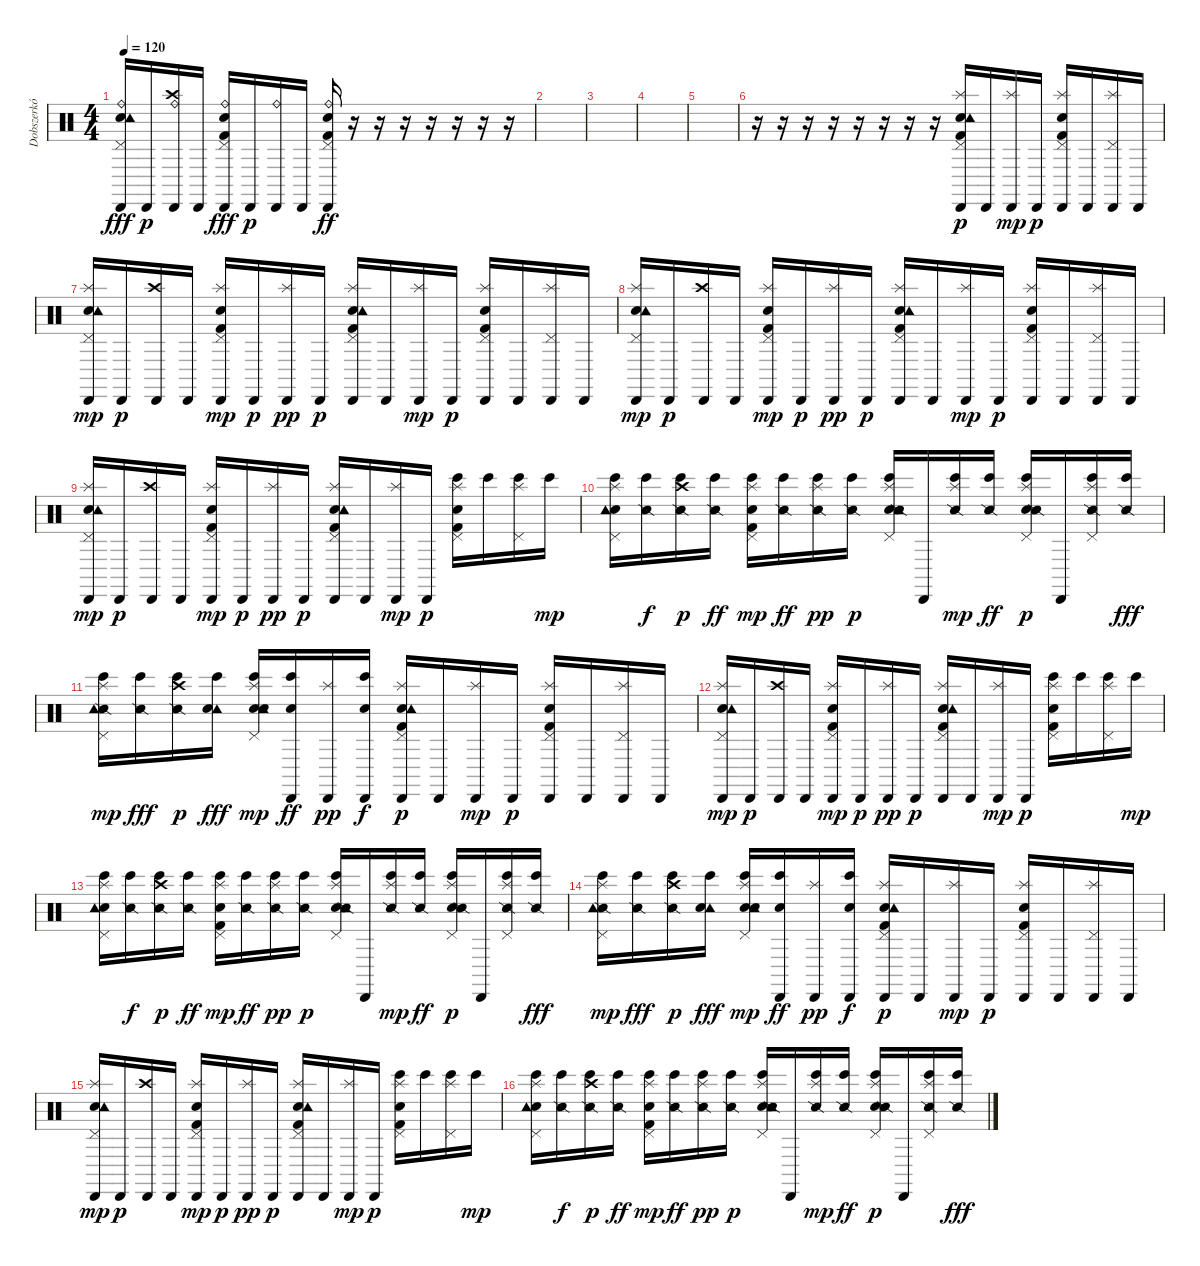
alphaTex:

\track ("Dobszerkó" "Dobszerkó") {instrument percussion}
\staff {score}
\articulation defaults
\ts (4 4)
\tempo 120
\clef neutral
\ks c
("Cabasa (hit)" "Snare (hit) 2" "Tambourine (hit)" "Pedal Hi-Hat (hit)" "Ride (bell)").16{dy fff} "Cabasa (hit)".16{dy p} ("Cabasa (hit)" "Crash high (hit)" "Ride (bell)").16 "Cabasa (hit)".16 ("Electric Snare (hit)" "Cabasa (hit)" "Kick (hit) 2" "Pedal Hi-Hat (hit)" "Ride (bell)").16{dy fff} "Cabasa (hit)".16{dy p} ("Cabasa (hit)" "Ride (bell)").16 "Cabasa (hit)".16 ("Snare (hit) 2" "Cabasa (hit)" "Kick (hit) 2" "Pedal Hi-Hat (hit)" "Ride (bell)").16{dy ff} r.16 r.16 r.16 r.16 r.16 r.16 r.16 |
|
|
|
|
r.16 r.16 r.16 r.16 r.16 r.16 r.16 r.16 ("Snare (hit) 2" "Cabasa (hit)" "Kick (hit) 2" "Tambourine (hit)" "Pedal Hi-Hat (hit)" "Splash (hit)").16{dy p} "Cabasa (hit)".16 ("Cabasa (hit)" "Splash (hit)").16{dy mp} "Cabasa (hit)".16{dy p} ("Electric Snare (hit)" "Cabasa (hit)" "Kick (hit) 2" "Pedal Hi-Hat (hit)" "Splash (hit)").16 "Cabasa (hit)".16 ("Cabasa (hit)" "Pedal Hi-Hat (hit)" "Splash (hit)").16 "Cabasa (hit)".16 |
("Cabasa (hit)" "Snare (hit) 2" "Tambourine (hit)" "Pedal Hi-Hat (hit)" "Splash (hit)").16{dy mp} "Cabasa (hit)".16{dy p} ("Cabasa (hit)" "Crash high (hit)").16 "Cabasa (hit)".16 ("Electric Snare (hit)" "Cabasa (hit)" "Kick (hit) 2" "Pedal Hi-Hat (hit)" "Splash (hit)").16{dy mp} "Cabasa (hit)".16{dy p} ("Cabasa (hit)" "Splash (hit)").16{dy pp} "Cabasa (hit)".16{dy p} ("Snare (hit) 2" "Cabasa (hit)" "Kick (hit) 2" "Tambourine (hit)" "Pedal Hi-Hat (hit)" "Splash (hit)").16 "Cabasa (hit)".16 ("Cabasa (hit)" "Splash (hit)").16{dy mp} "Cabasa (hit)".16{dy p} ("Electric Snare (hit)" "Cabasa (hit)" "Kick (hit) 2" "Pedal Hi-Hat (hit)" "Splash (hit)").16 "Cabasa (hit)".16 ("Cabasa (hit)" "Pedal Hi-Hat (hit)" "Splash (hit)").16 "Cabasa (hit)".16 |
("Cabasa (hit)" "Snare (hit) 2" "Tambourine (hit)" "Pedal Hi-Hat (hit)" "Splash (hit)").16{dy mp} "Cabasa (hit)".16{dy p} ("Cabasa (hit)" "Crash high (hit)").16 "Cabasa (hit)".16 ("Electric Snare (hit)" "Cabasa (hit)" "Kick (hit) 2" "Pedal Hi-Hat (hit)" "Splash (hit)").16{dy mp} "Cabasa (hit)".16{dy p} ("Cabasa (hit)" "Splash (hit)").16{dy pp} "Cabasa (hit)".16{dy p} ("Snare (hit) 2" "Cabasa (hit)" "Kick (hit) 2" "Tambourine (hit)" "Pedal Hi-Hat (hit)" "Splash (hit)").16 "Cabasa (hit)".16 ("Cabasa (hit)" "Splash (hit)").16{dy mp} "Cabasa (hit)".16{dy p} ("Electric Snare (hit)" "Cabasa (hit)" "Kick (hit) 2" "Pedal Hi-Hat (hit)" "Splash (hit)").16 "Cabasa (hit)".16 ("Cabasa (hit)" "Pedal Hi-Hat (hit)" "Splash (hit)").16 "Cabasa (hit)".16 |
("Cabasa (hit)" "Snare (hit) 2" "Tambourine (hit)" "Pedal Hi-Hat (hit)" "Splash (hit)").16{dy mp} "Cabasa (hit)".16{dy p} ("Cabasa (hit)" "Crash high (hit)").16 "Cabasa (hit)".16 ("Electric Snare (hit)" "Cabasa (hit)" "Kick (hit) 2" "Pedal Hi-Hat (hit)" "Splash (hit)").16{dy mp} "Cabasa (hit)".16{dy p} ("Cabasa (hit)" "Splash (hit)").16{dy pp} "Cabasa (hit)".16{dy p} ("Snare (hit) 2" "Cabasa (hit)" "Kick (hit) 2" "Tambourine (hit)" "Pedal Hi-Hat (hit)" "Splash (hit)").16 "Cabasa (hit)".16 ("Cabasa (hit)" "Splash (hit)").16{dy mp} "Cabasa (hit)".16{dy p} ("Electric Snare (hit)" "Bongo High (hit)" "Kick (hit) 2" "Pedal Hi-Hat (hit)" "Splash (hit)").16 "Bongo High (hit)".16 ("Bongo High (hit)" "Pedal Hi-Hat (hit)" "Splash (hit)").16 "Bongo High (hit)".16{dy mp} |
("Bongo High (hit)" "Snare (hit) 2" "Tambourine (hit)" "Pedal Hi-Hat (hit)" "Splash (hit)").16 ("Bongo High (hit)" "Snare (side stick) 2").16{dy f} ("Bongo High (hit)" "Snare (side stick) 2" "Crash high (hit)").16{dy p} ("Bongo High (hit)" "Snare (side stick) 2").16{dy ff} ("Electric Snare (hit)" "Bongo High (hit)" "Kick (hit) 2" "Pedal Hi-Hat (hit)" "Splash (hit)").16{dy mp} ("Bongo High (hit)" "Snare (side stick) 2").16{dy ff} ("Bongo High (hit)" "Snare (side stick) 2" "Splash (hit)").16{dy pp} ("Bongo High (hit)" "Snare (side stick) 2").16{dy p} ("Snare (hit) 2" "Bongo High (hit)" "Snare (side stick) 2" "Tambourine (hit)" "Pedal Hi-Hat (hit)" "Splash (hit)").16 "Cabasa (hit)".16 ("Bongo High (hit)" "Snare (side stick) 2" "Splash (hit)").16{dy mp} ("Bongo High (hit)" "Snare (side stick) 2").16{dy ff} ("Electric Snare (hit)" "Bongo High (hit)" "Snare (side stick) 2" "Pedal Hi-Hat (hit)" "Splash (hit)").16{dy p} "Cabasa (hit)".16 ("Bongo High (hit)" "Snare (side stick) 2" "Pedal Hi-Hat (hit)" "Splash (hit)").16 ("Bongo High (hit)" "Snare (side stick) 2").16{dy fff} |
("Bongo High (hit)" "Snare (side stick) 2" "Tambourine (hit)" "Pedal Hi-Hat (hit)" "Splash (hit)").16{dy mp} ("Bongo High (hit)" "Snare (side stick) 2").16{dy fff} ("Bongo High (hit)" "Snare (side stick) 2" "Crash high (hit)").16{dy p} ("Tambourine (hit)" "Snare (hit) 2" "Bongo High (hit)").16{dy fff} ("Electric Snare (hit)" "Tambourine (hit)" "Snare (hit) 2" "Bongo High (hit)" "Pedal Hi-Hat (hit)" "Splash (hit)").16{dy mp} ("Cabasa (hit)" "Snare (hit) 2" "Bongo High (hit)").16{dy ff} ("Cabasa (hit)" "Splash (hit)").16{dy pp} ("Cabasa (hit)" "Snare (hit) 2" "Bongo High (hit)").16{dy f} ("Snare (hit) 2" "Cabasa (hit)" "Kick (hit) 2" "Tambourine (hit)" "Pedal Hi-Hat (hit)" "Splash (hit)").16{dy p} "Cabasa (hit)".16 ("Cabasa (hit)" "Splash (hit)").16{dy mp} "Cabasa (hit)".16{dy p} ("Electric Snare (hit)" "Cabasa (hit)" "Kick (hit) 2" "Pedal Hi-Hat (hit)" "Splash (hit)").16 "Cabasa (hit)".16 ("Cabasa (hit)" "Pedal Hi-Hat (hit)" "Splash (hit)").16 "Cabasa (hit)".16 |
("Cabasa (hit)" "Snare (hit) 2" "Tambourine (hit)" "Pedal Hi-Hat (hit)" "Splash (hit)").16{dy mp} "Cabasa (hit)".16{dy p} ("Cabasa (hit)" "Crash high (hit)").16 "Cabasa (hit)".16 ("Electric Snare (hit)" "Cabasa (hit)" "Kick (hit) 2" "Pedal Hi-Hat (hit)" "Splash (hit)").16{dy mp} "Cabasa (hit)".16{dy p} ("Cabasa (hit)" "Splash (hit)").16{dy pp} "Cabasa (hit)".16{dy p} ("Snare (hit) 2" "Cabasa (hit)" "Kick (hit) 2" "Tambourine (hit)" "Pedal Hi-Hat (hit)" "Splash (hit)").16 "Cabasa (hit)".16 ("Cabasa (hit)" "Splash (hit)").16{dy mp} "Cabasa (hit)".16{dy p} ("Electric Snare (hit)" "Bongo High (hit)" "Kick (hit) 2" "Pedal Hi-Hat (hit)" "Splash (hit)").16 "Bongo High (hit)".16 ("Bongo High (hit)" "Pedal Hi-Hat (hit)" "Splash (hit)").16 "Bongo High (hit)".16{dy mp} |
("Bongo High (hit)" "Snare (hit) 2" "Tambourine (hit)" "Pedal Hi-Hat (hit)" "Splash (hit)").16 ("Bongo High (hit)" "Snare (side stick) 2").16{dy f} ("Bongo High (hit)" "Snare (side stick) 2" "Crash high (hit)").16{dy p} ("Bongo High (hit)" "Snare (side stick) 2").16{dy ff} ("Electric Snare (hit)" "Bongo High (hit)" "Kick (hit) 2" "Pedal Hi-Hat (hit)" "Splash (hit)").16{dy mp} ("Bongo High (hit)" "Snare (side stick) 2").16{dy ff} ("Bongo High (hit)" "Snare (side stick) 2" "Splash (hit)").16{dy pp} ("Bongo High (hit)" "Snare (side stick) 2").16{dy p} ("Snare (hit) 2" "Bongo High (hit)" "Snare (side stick) 2" "Tambourine (hit)" "Pedal Hi-Hat (hit)" "Splash (hit)").16 "Cabasa (hit)".16 ("Bongo High (hit)" "Snare (side stick) 2" "Splash (hit)").16{dy mp} ("Bongo High (hit)" "Snare (side stick) 2").16{dy ff} ("Electric Snare (hit)" "Bongo High (hit)" "Snare (side stick) 2" "Pedal Hi-Hat (hit)" "Splash (hit)").16{dy p} "Cabasa (hit)".16 ("Bongo High (hit)" "Snare (side stick) 2" "Pedal Hi-Hat (hit)" "Splash (hit)").16 ("Bongo High (hit)" "Snare (side stick) 2").16{dy fff} |
("Bongo High (hit)" "Snare (side stick) 2" "Tambourine (hit)" "Pedal Hi-Hat (hit)" "Splash (hit)").16{dy mp} ("Bongo High (hit)" "Snare (side stick) 2").16{dy fff} ("Bongo High (hit)" "Snare (side stick) 2" "Crash high (hit)").16{dy p} ("Tambourine (hit)" "Snare (hit) 2" "Bongo High (hit)").16{dy fff} ("Electric Snare (hit)" "Tambourine (hit)" "Snare (hit) 2" "Bongo High (hit)" "Pedal Hi-Hat (hit)" "Splash (hit)").16{dy mp} ("Cabasa (hit)" "Snare (hit) 2" "Bongo High (hit)").16{dy ff} ("Cabasa (hit)" "Splash (hit)").16{dy pp} ("Cabasa (hit)" "Snare (hit) 2" "Bongo High (hit)").16{dy f} ("Snare (hit) 2" "Cabasa (hit)" "Kick (hit) 2" "Tambourine (hit)" "Pedal Hi-Hat (hit)" "Splash (hit)").16{dy p} "Cabasa (hit)".16 ("Cabasa (hit)" "Splash (hit)").16{dy mp} "Cabasa (hit)".16{dy p} ("Electric Snare (hit)" "Cabasa (hit)" "Kick (hit) 2" "Pedal Hi-Hat (hit)" "Splash (hit)").16 "Cabasa (hit)".16 ("Cabasa (hit)" "Pedal Hi-Hat (hit)" "Splash (hit)").16 "Cabasa (hit)".16 |
("Cabasa (hit)" "Snare (hit) 2" "Tambourine (hit)" "Pedal Hi-Hat (hit)" "Splash (hit)").16{dy mp} "Cabasa (hit)".16{dy p} ("Cabasa (hit)" "Crash high (hit)").16 "Cabasa (hit)".16 ("Electric Snare (hit)" "Cabasa (hit)" "Kick (hit) 2" "Pedal Hi-Hat (hit)" "Splash (hit)").16{dy mp} "Cabasa (hit)".16{dy p} ("Cabasa (hit)" "Splash (hit)").16{dy pp} "Cabasa (hit)".16{dy p} ("Snare (hit) 2" "Cabasa (hit)" "Kick (hit) 2" "Tambourine (hit)" "Pedal Hi-Hat (hit)" "Splash (hit)").16 "Cabasa (hit)".16 ("Cabasa (hit)" "Splash (hit)").16{dy mp} "Cabasa (hit)".16{dy p} ("Electric Snare (hit)" "Bongo High (hit)" "Kick (hit) 2" "Pedal Hi-Hat (hit)" "Splash (hit)").16 "Bongo High (hit)".16 ("Bongo High (hit)" "Pedal Hi-Hat (hit)" "Splash (hit)").16 "Bongo High (hit)".16{dy mp} |
("Bongo High (hit)" "Snare (hit) 2" "Tambourine (hit)" "Pedal Hi-Hat (hit)" "Splash (hit)").16 ("Bongo High (hit)" "Snare (side stick) 2").16{dy f} ("Bongo High (hit)" "Snare (side stick) 2" "Crash high (hit)").16{dy p} ("Bongo High (hit)" "Snare (side stick) 2").16{dy ff} ("Electric Snare (hit)" "Bongo High (hit)" "Kick (hit) 2" "Pedal Hi-Hat (hit)" "Splash (hit)").16{dy mp} ("Bongo High (hit)" "Snare (side stick) 2").16{dy ff} ("Bongo High (hit)" "Snare (side stick) 2" "Splash (hit)").16{dy pp} ("Bongo High (hit)" "Snare (side stick) 2").16{dy p} ("Snare (hit) 2" "Bongo High (hit)" "Snare (side stick) 2" "Tambourine (hit)" "Pedal Hi-Hat (hit)" "Splash (hit)").16 "Cabasa (hit)".16 ("Bongo High (hit)" "Snare (side stick) 2" "Splash (hit)").16{dy mp} ("Bongo High (hit)" "Snare (side stick) 2").16{dy ff} ("Electric Snare (hit)" "Bongo High (hit)" "Snare (side stick) 2" "Pedal Hi-Hat (hit)" "Splash (hit)").16{dy p} "Cabasa (hit)".16 ("Bongo High (hit)" "Snare (side stick) 2" "Pedal Hi-Hat (hit)" "Splash (hit)").16 ("Bongo High (hit)" "Snare (side stick) 2").16{dy fff}
